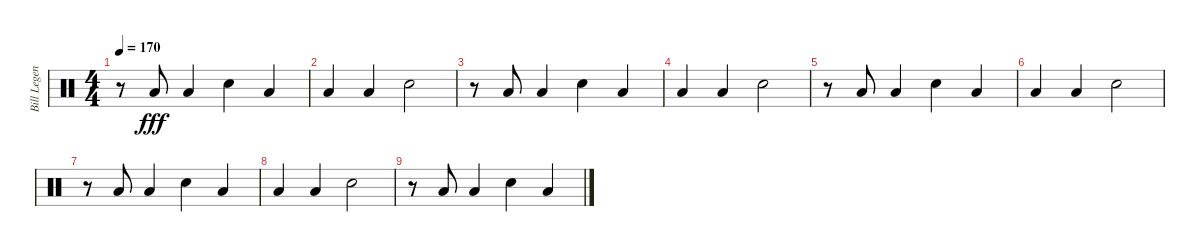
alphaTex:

\track ("Bill Legend" "Bill Legen") {instrument percussion}
\staff {score}
\articulation defaults
\ts (4 4)
\tempo 170
\clef neutral
\ks c
r.8{dy fff} "Low Floor Tom (hit)".8 "Low Floor Tom (hit)".4 "Electric Snare (hit)".4 "Low Floor Tom (hit)".4 |
"Low Floor Tom (hit)".4 "Low Floor Tom (hit)".4 "Electric Snare (hit)".2 |
r.8 "Low Floor Tom (hit)".8 "Low Floor Tom (hit)".4 "Electric Snare (hit)".4 "Low Floor Tom (hit)".4 |
"Low Floor Tom (hit)".4 "Low Floor Tom (hit)".4 "Electric Snare (hit)".2 |
r.8 "Low Floor Tom (hit)".8 "Low Floor Tom (hit)".4 "Electric Snare (hit)".4 "Low Floor Tom (hit)".4 |
"Low Floor Tom (hit)".4 "Low Floor Tom (hit)".4 "Electric Snare (hit)".2 |
r.8 "Low Floor Tom (hit)".8 "Low Floor Tom (hit)".4 "Electric Snare (hit)".4 "Low Floor Tom (hit)".4 |
"Low Floor Tom (hit)".4 "Low Floor Tom (hit)".4 "Electric Snare (hit)".2 |
r.8 "Low Floor Tom (hit)".8 "Low Floor Tom (hit)".4 "Electric Snare (hit)".4 "Low Floor Tom (hit)".4
